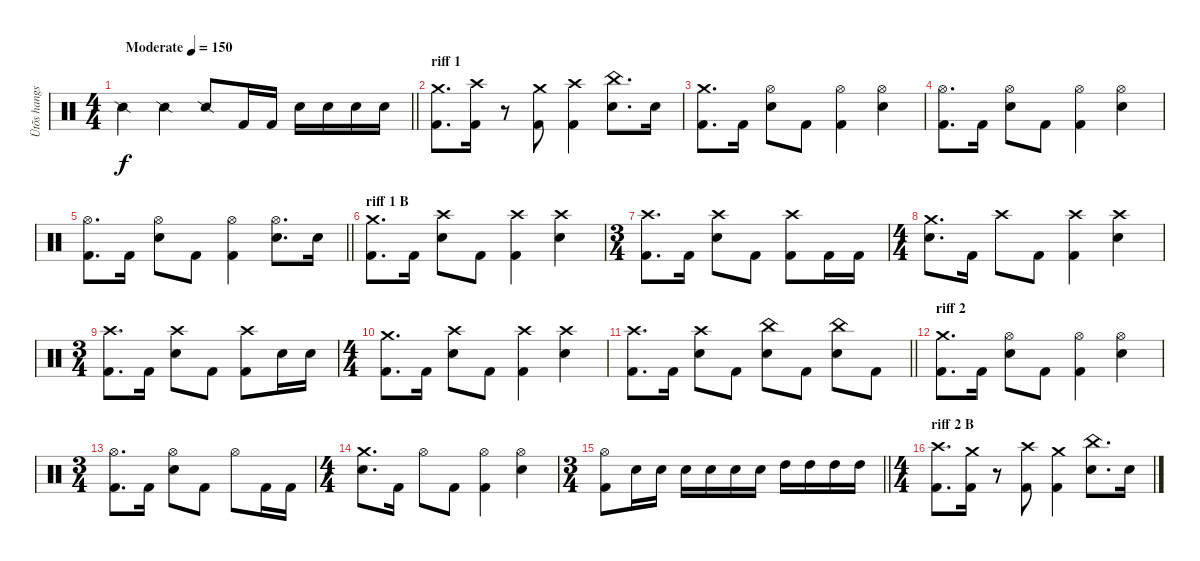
\track ("Ütõs hangszer" "Ütõs hangs") {instrument percussion}
\staff {score}
\articulation defaults
\ts (4 4)
\tempo (150 "Moderate")
\clef neutral
\barLineRight lightlight
\ks c "Snare (side stick) 2".4{dy f} "Snare (side stick) 2".4 "Snare (side stick) 2".8 "Kick (hit) 2".16 "Kick (hit) 2".16 "Electric Snare (hit)".16 "Electric Snare (hit)".16 "Electric Snare (hit)".16 "Electric Snare (hit)".16
|
\section ("" "riff 1")
("Crash medium (hit)" "Kick (hit) 2").8{d} ("Crash high (hit)" "Kick (hit) 2").16 r.8 ("Crash medium (hit)" "Kick (hit) 2").8 ("Crash high (hit)" "Kick (hit) 2").4 ("China (hit)" "Electric Snare (hit)").8{d} "Electric Snare (hit)".16 |
("Crash medium (hit)" "Kick (hit) 2").8{d} "Kick (hit) 2".16 ("Hi-Hat (open)" "Electric Snare (hit)").8 "Kick (hit) 2".8 ("Hi-Hat (open)" "Kick (hit) 2").4 ("Hi-Hat (open)" "Electric Snare (hit)").4 |
("Hi-Hat (open)" "Kick (hit) 2").8{d} "Kick (hit) 2".16 ("Hi-Hat (open)" "Electric Snare (hit)").8 "Kick (hit) 2".8 ("Hi-Hat (open)" "Kick (hit) 2").4 ("Hi-Hat (open)" "Electric Snare (hit)").4 |
\barLineRight lightlight
("Hi-Hat (open)" "Kick (hit) 2").8{d} "Kick (hit) 2".16 ("Hi-Hat (open)" "Electric Snare (hit)").8 "Kick (hit) 2".8 ("Hi-Hat (open)" "Kick (hit) 2").4 ("Hi-Hat (open)" "Electric Snare (hit)").8{d} "Electric Snare (hit)".16 |
\section ("" "riff 1 B")
("Crash medium (hit)" "Kick (hit) 2").8{d} "Kick (hit) 2".16 ("Crash high (hit)" "Electric Snare (hit)").8 "Kick (hit) 2".8 ("Crash high (hit)" "Kick (hit) 2").4 ("Crash high (hit)" "Electric Snare (hit)").4 |
\ts (3 4)
("Crash high (hit)" "Kick (hit) 2").8{d} "Kick (hit) 2".16 ("Crash high (hit)" "Electric Snare (hit)").8 "Kick (hit) 2".8 ("Crash high (hit)" "Kick (hit) 2").8 "Kick (hit) 2".16 "Kick (hit) 2".16 |
\ts (4 4)
("Crash medium (hit)" "Electric Snare (hit)").8{d} "Kick (hit) 2".16 "Crash high (hit)".8 "Kick (hit) 2".8 ("Crash high (hit)" "Kick (hit) 2").4 ("Crash high (hit)" "Electric Snare (hit)").4 |
\ts (3 4)
("Crash high (hit)" "Kick (hit) 2").8{d} "Kick (hit) 2".16 ("Crash high (hit)" "Electric Snare (hit)").8 "Kick (hit) 2".8 ("Crash high (hit)" "Kick (hit) 2").8 "Electric Snare (hit)".16 "Electric Snare (hit)".16 |
\ts (4 4)
("Crash medium (hit)" "Kick (hit) 2").8{d} "Kick (hit) 2".16 ("Crash high (hit)" "Electric Snare (hit)").8 "Kick (hit) 2".8 ("Crash high (hit)" "Kick (hit) 2").4 ("Crash high (hit)" "Electric Snare (hit)").4 |
\barLineRight lightlight
("Crash high (hit)" "Kick (hit) 2").8{d} "Kick (hit) 2".16 ("Crash high (hit)" "Electric Snare (hit)").8 "Kick (hit) 2".8 ("China (hit)" "Electric Snare (hit)").8 "Kick (hit) 2".8 ("China (hit)" "Electric Snare (hit)").8 "Kick (hit) 2".8 |
\section ("" "riff 2")
("Crash medium (hit)" "Kick (hit) 2").8{d} "Kick (hit) 2".16 ("Hi-Hat (open)" "Electric Snare (hit)").8 "Kick (hit) 2".8 ("Hi-Hat (open)" "Kick (hit) 2").4 ("Hi-Hat (open)" "Electric Snare (hit)").4 |
\ts (3 4)
("Hi-Hat (open)" "Kick (hit) 2").8{d} "Kick (hit) 2".16 ("Hi-Hat (open)" "Electric Snare (hit)").8 "Kick (hit) 2".8 "Hi-Hat (open)".8 "Kick (hit) 2".16 "Kick (hit) 2".16 |
\ts (4 4)
("Crash medium (hit)" "Electric Snare (hit)").8{d} "Kick (hit) 2".16 "Hi-Hat (open)".8 "Kick (hit) 2".8 ("Hi-Hat (open)" "Kick (hit) 2").4 ("Hi-Hat (open)" "Electric Snare (hit)").4 |
\ts (3 4)
\barLineRight lightlight
("Hi-Hat (open)" "Kick (hit) 2").8 "Electric Snare (hit)".16 "Electric Snare (hit)".16 "Electric Snare (hit)".16 "Electric Snare (hit)".16 "Electric Snare (hit)".16 "Electric Snare (hit)".16 "High Tom (hit)".16 "High Tom (hit)".16 "High Tom (hit)".16 "High Tom (hit)".16 |
\ts (4 4)
\section ("" "riff 2 B")
("Crash high (hit)" "Kick (hit) 2").8{d} ("Crash medium (hit)" "Kick (hit) 2").16 r.8 ("Crash high (hit)" "Kick (hit) 2").8 ("Crash medium (hit)" "Kick (hit) 2").4 ("China (hit)" "Electric Snare (hit)").8{d} "Electric Snare (hit)".16
